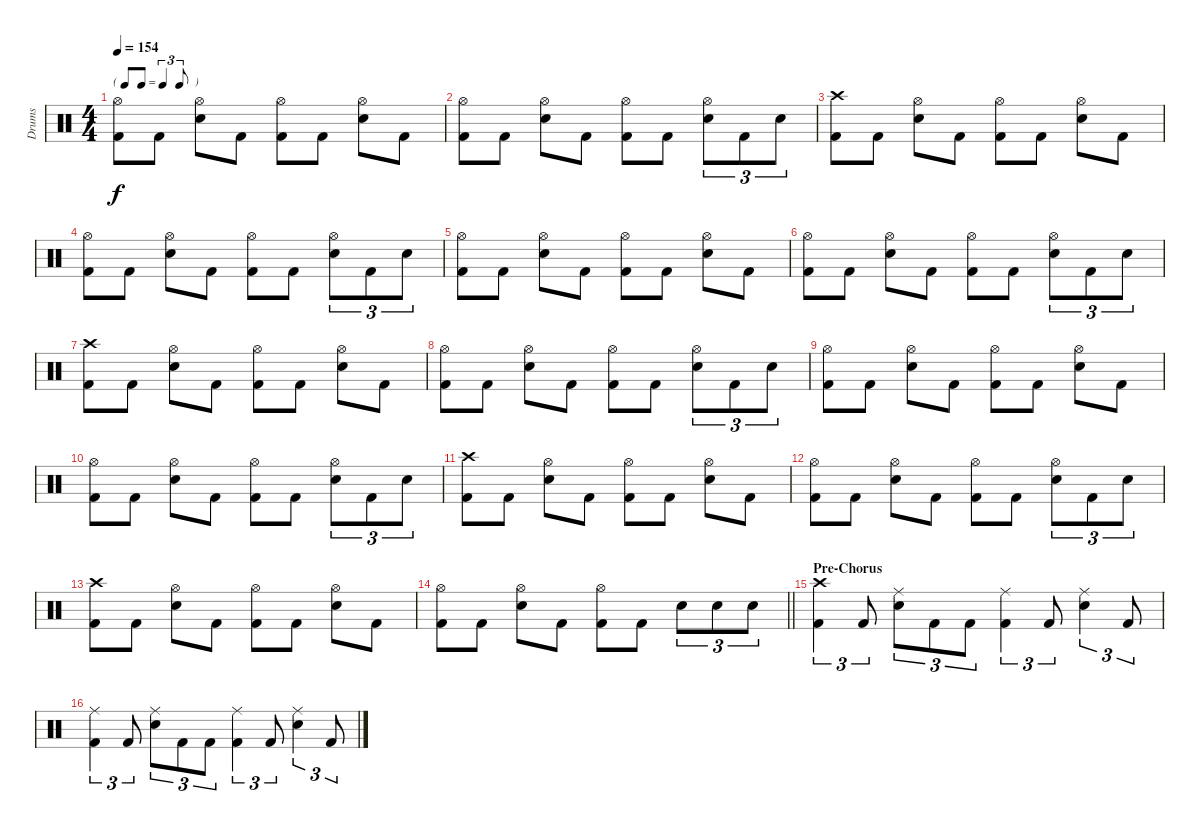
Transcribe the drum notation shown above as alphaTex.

\track ("Drums" "Drums") {instrument percussion}
\staff {score}
\articulation defaults
\ts (4 4)
\tf triplet8th
\tempo 154
\clef neutral
\ks c
("Hi-Hat (open)" "Kick (hit) 2").8{dy f} "Kick (hit) 2".8 ("Hi-Hat (open)" "Snare (hit) 2").8 "Kick (hit) 2".8 ("Hi-Hat (open)" "Kick (hit) 2").8 "Kick (hit) 2".8 ("Hi-Hat (open)" "Snare (hit) 2").8 "Kick (hit) 2".8 |
("Hi-Hat (open)" "Kick (hit) 2").8 "Kick (hit) 2".8 ("Hi-Hat (open)" "Snare (hit) 2").8 "Kick (hit) 2".8 ("Hi-Hat (open)" "Kick (hit) 2").8 "Kick (hit) 2".8 ("Hi-Hat (open)" "Snare (hit) 2").8{tu (3 2)} "Kick (hit) 2".8{tu (3 2)} "Snare (hit) 2".8{tu (3 2)} |
("Crash high (hit)" "Kick (hit) 2").8 "Kick (hit) 2".8 ("Hi-Hat (open)" "Snare (hit) 2").8 "Kick (hit) 2".8 ("Hi-Hat (open)" "Kick (hit) 2").8 "Kick (hit) 2".8 ("Hi-Hat (open)" "Snare (hit) 2").8 "Kick (hit) 2".8 |
("Hi-Hat (open)" "Kick (hit) 2").8 "Kick (hit) 2".8 ("Hi-Hat (open)" "Snare (hit) 2").8 "Kick (hit) 2".8 ("Hi-Hat (open)" "Kick (hit) 2").8 "Kick (hit) 2".8 ("Hi-Hat (open)" "Snare (hit) 2").8{tu (3 2)} "Kick (hit) 2".8{tu (3 2)} "Snare (hit) 2".8{tu (3 2)} |
("Hi-Hat (open)" "Kick (hit) 2").8 "Kick (hit) 2".8 ("Hi-Hat (open)" "Snare (hit) 2").8 "Kick (hit) 2".8 ("Hi-Hat (open)" "Kick (hit) 2").8 "Kick (hit) 2".8 ("Hi-Hat (open)" "Snare (hit) 2").8 "Kick (hit) 2".8 |
("Hi-Hat (open)" "Kick (hit) 2").8 "Kick (hit) 2".8 ("Hi-Hat (open)" "Snare (hit) 2").8 "Kick (hit) 2".8 ("Hi-Hat (open)" "Kick (hit) 2").8 "Kick (hit) 2".8 ("Hi-Hat (open)" "Snare (hit) 2").8{tu (3 2)} "Kick (hit) 2".8{tu (3 2)} "Snare (hit) 2".8{tu (3 2)} |
("Crash high (hit)" "Kick (hit) 2").8 "Kick (hit) 2".8 ("Hi-Hat (open)" "Snare (hit) 2").8 "Kick (hit) 2".8 ("Hi-Hat (open)" "Kick (hit) 2").8 "Kick (hit) 2".8 ("Hi-Hat (open)" "Snare (hit) 2").8 "Kick (hit) 2".8 |
("Hi-Hat (open)" "Kick (hit) 2").8 "Kick (hit) 2".8 ("Hi-Hat (open)" "Snare (hit) 2").8 "Kick (hit) 2".8 ("Hi-Hat (open)" "Kick (hit) 2").8 "Kick (hit) 2".8 ("Hi-Hat (open)" "Snare (hit) 2").8{tu (3 2)} "Kick (hit) 2".8{tu (3 2)} "Snare (hit) 2".8{tu (3 2)} |
("Hi-Hat (open)" "Kick (hit) 2").8 "Kick (hit) 2".8 ("Hi-Hat (open)" "Snare (hit) 2").8 "Kick (hit) 2".8 ("Hi-Hat (open)" "Kick (hit) 2").8 "Kick (hit) 2".8 ("Hi-Hat (open)" "Snare (hit) 2").8 "Kick (hit) 2".8 |
("Hi-Hat (open)" "Kick (hit) 2").8 "Kick (hit) 2".8 ("Hi-Hat (open)" "Snare (hit) 2").8 "Kick (hit) 2".8 ("Hi-Hat (open)" "Kick (hit) 2").8 "Kick (hit) 2".8 ("Hi-Hat (open)" "Snare (hit) 2").8{tu (3 2)} "Kick (hit) 2".8{tu (3 2)} "Snare (hit) 2".8{tu (3 2)} |
("Crash high (hit)" "Kick (hit) 2").8 "Kick (hit) 2".8 ("Hi-Hat (open)" "Snare (hit) 2").8 "Kick (hit) 2".8 ("Hi-Hat (open)" "Kick (hit) 2").8 "Kick (hit) 2".8 ("Hi-Hat (open)" "Snare (hit) 2").8 "Kick (hit) 2".8 |
("Hi-Hat (open)" "Kick (hit) 2").8 "Kick (hit) 2".8 ("Hi-Hat (open)" "Snare (hit) 2").8 "Kick (hit) 2".8 ("Hi-Hat (open)" "Kick (hit) 2").8 "Kick (hit) 2".8 ("Hi-Hat (open)" "Snare (hit) 2").8{tu (3 2)} "Kick (hit) 2".8{tu (3 2)} "Snare (hit) 2".8{tu (3 2)} |
("Crash high (hit)" "Kick (hit) 2").8 "Kick (hit) 2".8 ("Hi-Hat (open)" "Snare (hit) 2").8 "Kick (hit) 2".8 ("Hi-Hat (open)" "Kick (hit) 2").8 "Kick (hit) 2".8 ("Hi-Hat (open)" "Snare (hit) 2").8 "Kick (hit) 2".8 |
\barLineRight lightlight
("Hi-Hat (open)" "Kick (hit) 2").8 "Kick (hit) 2".8 ("Hi-Hat (open)" "Snare (hit) 2").8 "Kick (hit) 2".8 ("Hi-Hat (open)" "Kick (hit) 2").8 "Kick (hit) 2".8 "Snare (hit) 2".8{tu (3 2)} "Snare (hit) 2".8{tu (3 2)} "Snare (hit) 2".8{tu (3 2)} |
\section ("" "Pre-Chorus")
("Crash high (hit)" "Kick (hit) 2").4{tu (3 2)} "Kick (hit) 2".8{tu (3 2)} ("Ride (middle)" "Snare (hit) 2").8{tu (3 2)} "Kick (hit) 2".8{tu (3 2)} "Kick (hit) 2".8{tu (3 2)} ("Ride (middle)" "Kick (hit) 2").4{tu (3 2)} "Kick (hit) 2".8{tu (3 2)} ("Ride (middle)" "Snare (hit) 2").4{tu (3 2)} "Kick (hit) 2".8{tu (3 2)} |
("Ride (middle)" "Kick (hit) 2").4{tu (3 2)} "Kick (hit) 2".8{tu (3 2)} ("Ride (middle)" "Snare (hit) 2").8{tu (3 2)} "Kick (hit) 2".8{tu (3 2)} "Kick (hit) 2".8{tu (3 2)} ("Ride (middle)" "Kick (hit) 2").4{tu (3 2)} "Kick (hit) 2".8{tu (3 2)} ("Ride (middle)" "Snare (hit) 2").4{tu (3 2)} "Kick (hit) 2".8{tu (3 2)}
